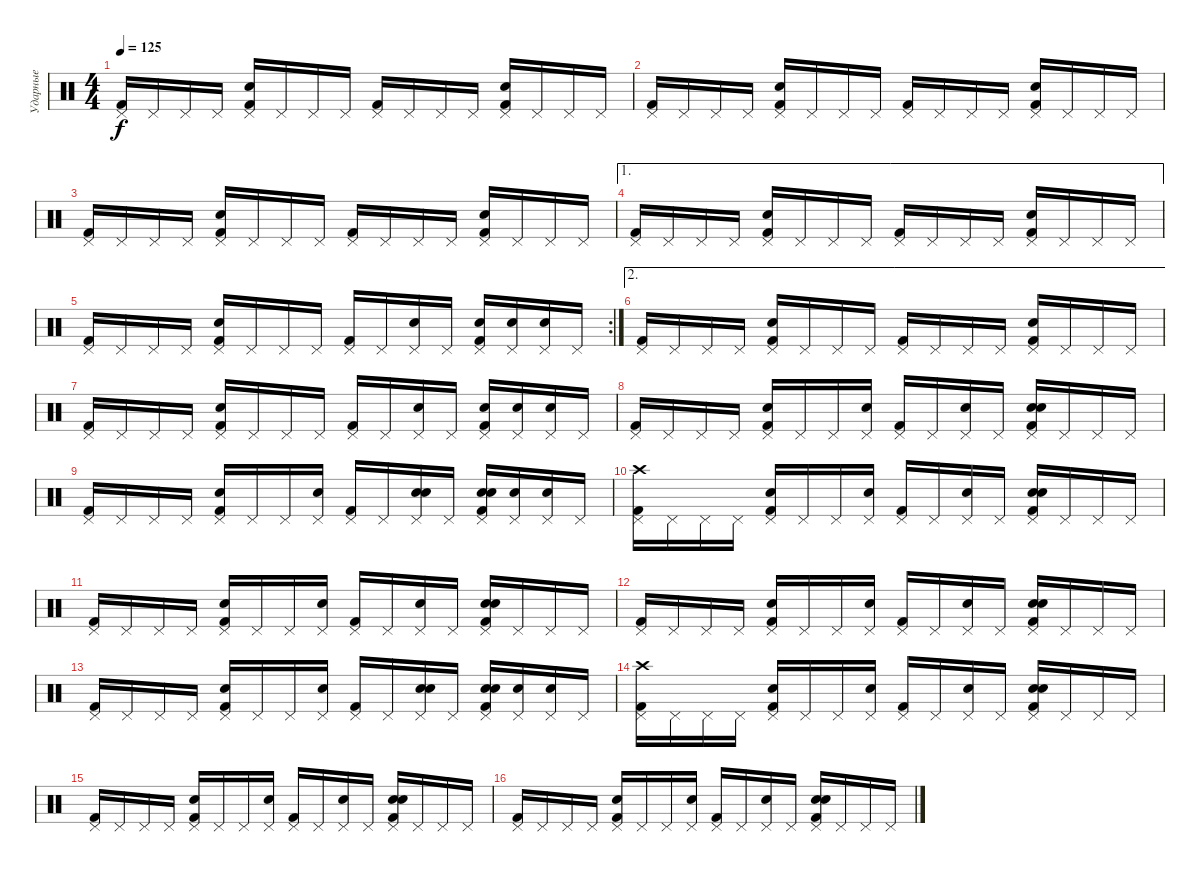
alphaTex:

\track ("Ударные" "Ударные") {instrument percussion}
\staff {score}
\articulation defaults
\ts (4 4)
\tempo 125
\clef neutral
\ks c
("Kick (hit) 2" "Pedal Hi-Hat (hit)").16{dy f} "Pedal Hi-Hat (hit)".16 "Pedal Hi-Hat (hit)".16 "Pedal Hi-Hat (hit)".16 ("Kick (hit) 2" "Pedal Hi-Hat (hit)" "Snare (hit) 2").16 "Pedal Hi-Hat (hit)".16 "Pedal Hi-Hat (hit)".16 "Pedal Hi-Hat (hit)".16 ("Kick (hit) 2" "Pedal Hi-Hat (hit)").16 "Pedal Hi-Hat (hit)".16 "Pedal Hi-Hat (hit)".16 "Pedal Hi-Hat (hit)".16 ("Kick (hit) 2" "Pedal Hi-Hat (hit)" "Snare (hit) 2").16 "Pedal Hi-Hat (hit)".16 "Pedal Hi-Hat (hit)".16 "Pedal Hi-Hat (hit)".16 |
("Kick (hit) 2" "Pedal Hi-Hat (hit)").16 "Pedal Hi-Hat (hit)".16 "Pedal Hi-Hat (hit)".16 "Pedal Hi-Hat (hit)".16 ("Kick (hit) 2" "Pedal Hi-Hat (hit)" "Snare (hit) 2").16 "Pedal Hi-Hat (hit)".16 "Pedal Hi-Hat (hit)".16 "Pedal Hi-Hat (hit)".16 ("Kick (hit) 2" "Pedal Hi-Hat (hit)").16 "Pedal Hi-Hat (hit)".16 "Pedal Hi-Hat (hit)".16 "Pedal Hi-Hat (hit)".16 ("Kick (hit) 2" "Pedal Hi-Hat (hit)" "Snare (hit) 2").16 "Pedal Hi-Hat (hit)".16 "Pedal Hi-Hat (hit)".16 "Pedal Hi-Hat (hit)".16 |
("Kick (hit) 2" "Pedal Hi-Hat (hit)").16 "Pedal Hi-Hat (hit)".16 "Pedal Hi-Hat (hit)".16 "Pedal Hi-Hat (hit)".16 ("Kick (hit) 2" "Pedal Hi-Hat (hit)" "Snare (hit) 2").16 "Pedal Hi-Hat (hit)".16 "Pedal Hi-Hat (hit)".16 "Pedal Hi-Hat (hit)".16 ("Kick (hit) 2" "Pedal Hi-Hat (hit)").16 "Pedal Hi-Hat (hit)".16 "Pedal Hi-Hat (hit)".16 "Pedal Hi-Hat (hit)".16 ("Kick (hit) 2" "Pedal Hi-Hat (hit)" "Snare (hit) 2").16 "Pedal Hi-Hat (hit)".16 "Pedal Hi-Hat (hit)".16 "Pedal Hi-Hat (hit)".16 |
\ae 1
("Kick (hit) 2" "Pedal Hi-Hat (hit)").16 "Pedal Hi-Hat (hit)".16 "Pedal Hi-Hat (hit)".16 "Pedal Hi-Hat (hit)".16 ("Kick (hit) 2" "Pedal Hi-Hat (hit)" "Snare (hit) 2").16 "Pedal Hi-Hat (hit)".16 "Pedal Hi-Hat (hit)".16 "Pedal Hi-Hat (hit)".16 ("Kick (hit) 2" "Pedal Hi-Hat (hit)").16 "Pedal Hi-Hat (hit)".16 "Pedal Hi-Hat (hit)".16 "Pedal Hi-Hat (hit)".16 ("Kick (hit) 2" "Pedal Hi-Hat (hit)" "Snare (hit) 2").16 "Pedal Hi-Hat (hit)".16 "Pedal Hi-Hat (hit)".16 "Pedal Hi-Hat (hit)".16 |
\rc 2
("Kick (hit) 2" "Pedal Hi-Hat (hit)").16 "Pedal Hi-Hat (hit)".16 "Pedal Hi-Hat (hit)".16 "Pedal Hi-Hat (hit)".16 ("Kick (hit) 2" "Pedal Hi-Hat (hit)" "Snare (hit) 2").16 "Pedal Hi-Hat (hit)".16 "Pedal Hi-Hat (hit)".16 "Pedal Hi-Hat (hit)".16 ("Kick (hit) 2" "Pedal Hi-Hat (hit)").16 "Pedal Hi-Hat (hit)".16 ("Pedal Hi-Hat (hit)" "Snare (hit) 2").16 "Pedal Hi-Hat (hit)".16 ("Kick (hit) 2" "Pedal Hi-Hat (hit)" "Snare (hit) 2").16 ("Pedal Hi-Hat (hit)" "Snare (hit) 2").16 ("Pedal Hi-Hat (hit)" "Snare (hit) 2").16 "Pedal Hi-Hat (hit)".16 |
\ae 2
("Kick (hit) 2" "Pedal Hi-Hat (hit)").16 "Pedal Hi-Hat (hit)".16 "Pedal Hi-Hat (hit)".16 "Pedal Hi-Hat (hit)".16 ("Kick (hit) 2" "Pedal Hi-Hat (hit)" "Snare (hit) 2").16 "Pedal Hi-Hat (hit)".16 "Pedal Hi-Hat (hit)".16 "Pedal Hi-Hat (hit)".16 ("Kick (hit) 2" "Pedal Hi-Hat (hit)").16 "Pedal Hi-Hat (hit)".16 "Pedal Hi-Hat (hit)".16 "Pedal Hi-Hat (hit)".16 ("Kick (hit) 2" "Pedal Hi-Hat (hit)" "Snare (hit) 2").16 "Pedal Hi-Hat (hit)".16 "Pedal Hi-Hat (hit)".16 "Pedal Hi-Hat (hit)".16 |
("Kick (hit) 2" "Pedal Hi-Hat (hit)").16 "Pedal Hi-Hat (hit)".16 "Pedal Hi-Hat (hit)".16 "Pedal Hi-Hat (hit)".16 ("Kick (hit) 2" "Pedal Hi-Hat (hit)" "Snare (hit) 2").16 "Pedal Hi-Hat (hit)".16 "Pedal Hi-Hat (hit)".16 "Pedal Hi-Hat (hit)".16 ("Kick (hit) 2" "Pedal Hi-Hat (hit)").16 "Pedal Hi-Hat (hit)".16 ("Pedal Hi-Hat (hit)" "Snare (hit) 2").16 "Pedal Hi-Hat (hit)".16 ("Kick (hit) 2" "Pedal Hi-Hat (hit)" "Snare (hit) 2").16 ("Pedal Hi-Hat (hit)" "Snare (hit) 2").16 ("Pedal Hi-Hat (hit)" "Snare (hit) 2").16 "Pedal Hi-Hat (hit)".16 |
("Kick (hit) 2" "Pedal Hi-Hat (hit)").16 "Pedal Hi-Hat (hit)".16 "Pedal Hi-Hat (hit)".16 "Pedal Hi-Hat (hit)".16 ("Kick (hit) 2" "Pedal Hi-Hat (hit)" "Snare (hit) 2").16 "Pedal Hi-Hat (hit)".16 "Pedal Hi-Hat (hit)".16 ("Pedal Hi-Hat (hit)" "Hand Clap (hit)").16 ("Kick (hit) 2" "Pedal Hi-Hat (hit)").16 "Pedal Hi-Hat (hit)".16 ("Pedal Hi-Hat (hit)" "Hand Clap (hit)").16 "Pedal Hi-Hat (hit)".16 ("Kick (hit) 2" "Pedal Hi-Hat (hit)" "Snare (hit) 2" "Hand Clap (hit)").16 "Pedal Hi-Hat (hit)".16 "Pedal Hi-Hat (hit)".16 "Pedal Hi-Hat (hit)".16 |
("Kick (hit) 2" "Pedal Hi-Hat (hit)").16 "Pedal Hi-Hat (hit)".16 "Pedal Hi-Hat (hit)".16 "Pedal Hi-Hat (hit)".16 ("Kick (hit) 2" "Pedal Hi-Hat (hit)" "Snare (hit) 2").16 "Pedal Hi-Hat (hit)".16 "Pedal Hi-Hat (hit)".16 ("Pedal Hi-Hat (hit)" "Hand Clap (hit)").16 ("Kick (hit) 2" "Pedal Hi-Hat (hit)").16 "Pedal Hi-Hat (hit)".16 ("Pedal Hi-Hat (hit)" "Snare (hit) 2" "Hand Clap (hit)").16 "Pedal Hi-Hat (hit)".16 ("Kick (hit) 2" "Pedal Hi-Hat (hit)" "Snare (hit) 2" "Hand Clap (hit)").16 ("Pedal Hi-Hat (hit)" "Snare (hit) 2").16 ("Pedal Hi-Hat (hit)" "Snare (hit) 2").16 "Pedal Hi-Hat (hit)".16 |
("Kick (hit) 2" "Pedal Hi-Hat (hit)" "Crash high (hit)").16 "Pedal Hi-Hat (hit)".16 "Pedal Hi-Hat (hit)".16 "Pedal Hi-Hat (hit)".16 ("Kick (hit) 2" "Pedal Hi-Hat (hit)" "Snare (hit) 2").16 "Pedal Hi-Hat (hit)".16 "Pedal Hi-Hat (hit)".16 ("Pedal Hi-Hat (hit)" "Hand Clap (hit)").16 ("Kick (hit) 2" "Pedal Hi-Hat (hit)").16 "Pedal Hi-Hat (hit)".16 ("Pedal Hi-Hat (hit)" "Hand Clap (hit)").16 "Pedal Hi-Hat (hit)".16 ("Kick (hit) 2" "Pedal Hi-Hat (hit)" "Snare (hit) 2" "Hand Clap (hit)").16 "Pedal Hi-Hat (hit)".16 "Pedal Hi-Hat (hit)".16 "Pedal Hi-Hat (hit)".16 |
("Kick (hit) 2" "Pedal Hi-Hat (hit)").16 "Pedal Hi-Hat (hit)".16 "Pedal Hi-Hat (hit)".16 "Pedal Hi-Hat (hit)".16 ("Kick (hit) 2" "Pedal Hi-Hat (hit)" "Snare (hit) 2").16 "Pedal Hi-Hat (hit)".16 "Pedal Hi-Hat (hit)".16 ("Pedal Hi-Hat (hit)" "Hand Clap (hit)").16 ("Kick (hit) 2" "Pedal Hi-Hat (hit)").16 "Pedal Hi-Hat (hit)".16 ("Pedal Hi-Hat (hit)" "Hand Clap (hit)").16 "Pedal Hi-Hat (hit)".16 ("Kick (hit) 2" "Pedal Hi-Hat (hit)" "Snare (hit) 2" "Hand Clap (hit)").16 "Pedal Hi-Hat (hit)".16 "Pedal Hi-Hat (hit)".16 "Pedal Hi-Hat (hit)".16 |
("Kick (hit) 2" "Pedal Hi-Hat (hit)").16 "Pedal Hi-Hat (hit)".16 "Pedal Hi-Hat (hit)".16 "Pedal Hi-Hat (hit)".16 ("Kick (hit) 2" "Pedal Hi-Hat (hit)" "Snare (hit) 2").16 "Pedal Hi-Hat (hit)".16 "Pedal Hi-Hat (hit)".16 ("Pedal Hi-Hat (hit)" "Hand Clap (hit)").16 ("Kick (hit) 2" "Pedal Hi-Hat (hit)").16 "Pedal Hi-Hat (hit)".16 ("Pedal Hi-Hat (hit)" "Hand Clap (hit)").16 "Pedal Hi-Hat (hit)".16 ("Kick (hit) 2" "Pedal Hi-Hat (hit)" "Snare (hit) 2" "Hand Clap (hit)").16 "Pedal Hi-Hat (hit)".16 "Pedal Hi-Hat (hit)".16 "Pedal Hi-Hat (hit)".16 |
("Kick (hit) 2" "Pedal Hi-Hat (hit)").16 "Pedal Hi-Hat (hit)".16 "Pedal Hi-Hat (hit)".16 "Pedal Hi-Hat (hit)".16 ("Kick (hit) 2" "Pedal Hi-Hat (hit)" "Snare (hit) 2").16 "Pedal Hi-Hat (hit)".16 "Pedal Hi-Hat (hit)".16 ("Pedal Hi-Hat (hit)" "Hand Clap (hit)").16 ("Kick (hit) 2" "Pedal Hi-Hat (hit)").16 "Pedal Hi-Hat (hit)".16 ("Pedal Hi-Hat (hit)" "Snare (hit) 2" "Hand Clap (hit)").16 "Pedal Hi-Hat (hit)".16 ("Kick (hit) 2" "Pedal Hi-Hat (hit)" "Snare (hit) 2" "Hand Clap (hit)").16 ("Pedal Hi-Hat (hit)" "Snare (hit) 2").16 ("Pedal Hi-Hat (hit)" "Snare (hit) 2").16 "Pedal Hi-Hat (hit)".16 |
("Kick (hit) 2" "Pedal Hi-Hat (hit)" "Crash high (hit)").16 "Pedal Hi-Hat (hit)".16 "Pedal Hi-Hat (hit)".16 "Pedal Hi-Hat (hit)".16 ("Kick (hit) 2" "Pedal Hi-Hat (hit)" "Snare (hit) 2").16 "Pedal Hi-Hat (hit)".16 "Pedal Hi-Hat (hit)".16 ("Pedal Hi-Hat (hit)" "Hand Clap (hit)").16 ("Kick (hit) 2" "Pedal Hi-Hat (hit)").16 "Pedal Hi-Hat (hit)".16 ("Pedal Hi-Hat (hit)" "Hand Clap (hit)").16 "Pedal Hi-Hat (hit)".16 ("Kick (hit) 2" "Pedal Hi-Hat (hit)" "Snare (hit) 2" "Hand Clap (hit)").16 "Pedal Hi-Hat (hit)".16 "Pedal Hi-Hat (hit)".16 "Pedal Hi-Hat (hit)".16 |
("Kick (hit) 2" "Pedal Hi-Hat (hit)").16 "Pedal Hi-Hat (hit)".16 "Pedal Hi-Hat (hit)".16 "Pedal Hi-Hat (hit)".16 ("Kick (hit) 2" "Pedal Hi-Hat (hit)" "Snare (hit) 2").16 "Pedal Hi-Hat (hit)".16 "Pedal Hi-Hat (hit)".16 ("Pedal Hi-Hat (hit)" "Hand Clap (hit)").16 ("Kick (hit) 2" "Pedal Hi-Hat (hit)").16 "Pedal Hi-Hat (hit)".16 ("Pedal Hi-Hat (hit)" "Hand Clap (hit)").16 "Pedal Hi-Hat (hit)".16 ("Kick (hit) 2" "Pedal Hi-Hat (hit)" "Snare (hit) 2" "Hand Clap (hit)").16 "Pedal Hi-Hat (hit)".16 "Pedal Hi-Hat (hit)".16 "Pedal Hi-Hat (hit)".16 |
("Kick (hit) 2" "Pedal Hi-Hat (hit)").16 "Pedal Hi-Hat (hit)".16 "Pedal Hi-Hat (hit)".16 "Pedal Hi-Hat (hit)".16 ("Kick (hit) 2" "Pedal Hi-Hat (hit)" "Snare (hit) 2").16 "Pedal Hi-Hat (hit)".16 "Pedal Hi-Hat (hit)".16 ("Pedal Hi-Hat (hit)" "Hand Clap (hit)").16 ("Kick (hit) 2" "Pedal Hi-Hat (hit)").16 "Pedal Hi-Hat (hit)".16 ("Pedal Hi-Hat (hit)" "Hand Clap (hit)").16 "Pedal Hi-Hat (hit)".16 ("Kick (hit) 2" "Pedal Hi-Hat (hit)" "Snare (hit) 2" "Hand Clap (hit)").16 "Pedal Hi-Hat (hit)".16 "Pedal Hi-Hat (hit)".16 "Pedal Hi-Hat (hit)".16
